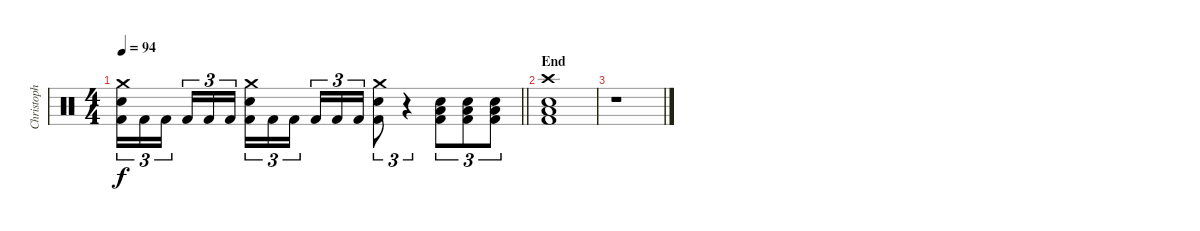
\track ("Christoph Schneider [Drums]" "Christoph ") {instrument percussion}
\staff {score}
\articulation defaults
\ts (4 4)
\tempo 94
\clef neutral
\barLineRight lightlight
\ks c
("Crash medium (hit)" "Electric Snare (hit)" "Kick (hit) 2").16{tu (3 2) dy f} "Kick (hit) 2".16{tu (3 2)} "Kick (hit) 2".16{tu (3 2)} "Kick (hit) 2".16{tu (3 2)} "Kick (hit) 2".16{tu (3 2)} "Kick (hit) 2".16{tu (3 2)} ("Crash medium (hit)" "Electric Snare (hit)" "Kick (hit) 2").16{tu (3 2)} "Kick (hit) 2".16{tu (3 2)} "Kick (hit) 2".16{tu (3 2)} "Kick (hit) 2".16{tu (3 2)} "Kick (hit) 2".16{tu (3 2)} "Kick (hit) 2".16{tu (3 2)} ("Crash medium (hit)" "Electric Snare (hit)" "Kick (hit) 2").8{tu (3 2)} r.4{tu (3 2)} ("Low Floor Tom (hit)" "Electric Snare (hit)" "Kick (hit) 2").8{tu (3 2)} ("Low Floor Tom (hit)" "Electric Snare (hit)" "Kick (hit) 2").8{tu (3 2)} ("Low Floor Tom (hit)" "Electric Snare (hit)" "Kick (hit) 2").8{tu (3 2)} |
\section ("" "End")
("Crash high (hit)" "Low Floor Tom (hit)" "Electric Snare (hit)" "Kick (hit) 2").1 |
r.1
